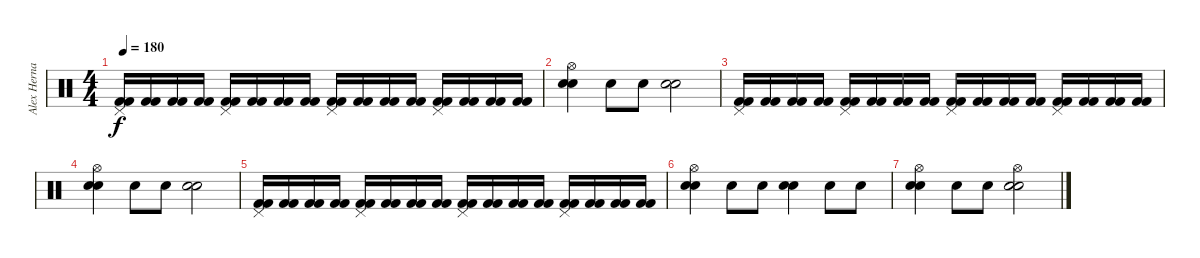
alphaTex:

\track ("Alex Hernandez" "Alex Herna") {instrument percussion}
\staff {score}
\articulation defaults
\ts (4 4)
\tempo 180
\clef neutral
\ks c
("Pedal Hi-Hat (hit)" "Kick (hit) 2" "Kick (hit) 2").16{dy f} ("Kick (hit) 2" "Kick (hit) 2").16 ("Kick (hit) 2" "Kick (hit) 2").16 ("Kick (hit) 2" "Kick (hit) 2").16 ("Pedal Hi-Hat (hit)" "Kick (hit) 2" "Kick (hit) 2").16 ("Kick (hit) 2" "Kick (hit) 2").16 ("Kick (hit) 2" "Kick (hit) 2").16 ("Kick (hit) 2" "Kick (hit) 2").16 ("Pedal Hi-Hat (hit)" "Kick (hit) 2" "Kick (hit) 2").16 ("Kick (hit) 2" "Kick (hit) 2").16 ("Kick (hit) 2" "Kick (hit) 2").16 ("Kick (hit) 2" "Kick (hit) 2").16 ("Pedal Hi-Hat (hit)" "Kick (hit) 2" "Kick (hit) 2").16 ("Kick (hit) 2" "Kick (hit) 2").16 ("Kick (hit) 2" "Kick (hit) 2").16 ("Kick (hit) 2" "Kick (hit) 2").16 |
("Hi-Hat (open)" "Snare (hit) 2" "Snare (hit) 2").4 "Snare (hit) 2".8 "Snare (hit) 2".8 ("Snare (hit) 2" "Snare (hit) 2").2 |
("Pedal Hi-Hat (hit)" "Kick (hit) 2" "Kick (hit) 2").16 ("Kick (hit) 2" "Kick (hit) 2").16 ("Kick (hit) 2" "Kick (hit) 2").16 ("Kick (hit) 2" "Kick (hit) 2").16 ("Pedal Hi-Hat (hit)" "Kick (hit) 2" "Kick (hit) 2").16 ("Kick (hit) 2" "Kick (hit) 2").16 ("Kick (hit) 2" "Kick (hit) 2").16 ("Kick (hit) 2" "Kick (hit) 2").16 ("Pedal Hi-Hat (hit)" "Kick (hit) 2" "Kick (hit) 2").16 ("Kick (hit) 2" "Kick (hit) 2").16 ("Kick (hit) 2" "Kick (hit) 2").16 ("Kick (hit) 2" "Kick (hit) 2").16 ("Pedal Hi-Hat (hit)" "Kick (hit) 2" "Kick (hit) 2").16 ("Kick (hit) 2" "Kick (hit) 2").16 ("Kick (hit) 2" "Kick (hit) 2").16 ("Kick (hit) 2" "Kick (hit) 2").16 |
("Hi-Hat (open)" "Snare (hit) 2" "Snare (hit) 2").4 "Snare (hit) 2".8 "Snare (hit) 2".8 ("Snare (hit) 2" "Snare (hit) 2").2 |
("Pedal Hi-Hat (hit)" "Kick (hit) 2" "Kick (hit) 2").16 ("Kick (hit) 2" "Kick (hit) 2").16 ("Kick (hit) 2" "Kick (hit) 2").16 ("Kick (hit) 2" "Kick (hit) 2").16 ("Pedal Hi-Hat (hit)" "Kick (hit) 2" "Kick (hit) 2").16 ("Kick (hit) 2" "Kick (hit) 2").16 ("Kick (hit) 2" "Kick (hit) 2").16 ("Kick (hit) 2" "Kick (hit) 2").16 ("Pedal Hi-Hat (hit)" "Kick (hit) 2" "Kick (hit) 2").16 ("Kick (hit) 2" "Kick (hit) 2").16 ("Kick (hit) 2" "Kick (hit) 2").16 ("Kick (hit) 2" "Kick (hit) 2").16 ("Pedal Hi-Hat (hit)" "Kick (hit) 2" "Kick (hit) 2").16 ("Kick (hit) 2" "Kick (hit) 2").16 ("Kick (hit) 2" "Kick (hit) 2").16 ("Kick (hit) 2" "Kick (hit) 2").16 |
("Hi-Hat (open)" "Snare (hit) 2" "Snare (hit) 2").4 "Snare (hit) 2".8 "Snare (hit) 2".8 ("Snare (hit) 2" "Snare (hit) 2").4 "Snare (hit) 2".8 "Snare (hit) 2".8 |
("Hi-Hat (open)" "Snare (hit) 2" "Snare (hit) 2").4 "Snare (hit) 2".8 "Snare (hit) 2".8 ("Hi-Hat (open)" "Snare (hit) 2" "Snare (hit) 2").2
